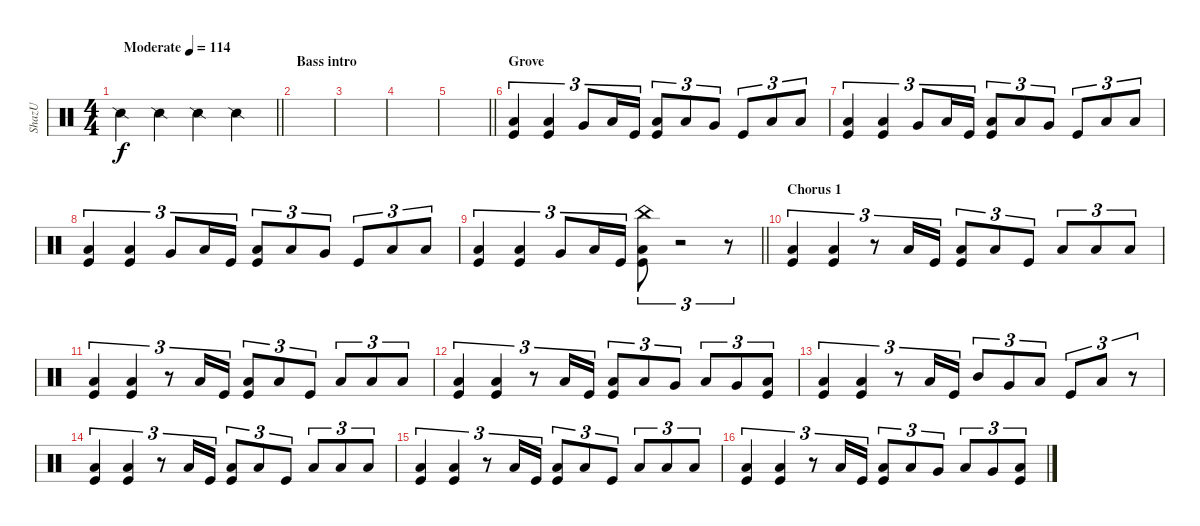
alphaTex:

\track ("ShazU" "ShazU") {instrument percussion}
\staff {score}
\articulation defaults
\ts (4 4)
\tempo (114 "Moderate")
\clef neutral
\barLineRight lightlight
\ks c "Snare (side stick) 2".4{dy f} "Snare (side stick) 2".4 "Snare (side stick) 2".4 "Snare (side stick) 2".4
|
\section ("" "Bass intro")
|
|
|
\barLineRight lightlight
|
\section ("" "Grove")
("Kick (hit)" "Low Floor Tom (hit)").4{tu (3 2)} ("Kick (hit)" "Low Floor Tom (hit)").4{tu (3 2)} "Very Low Tom (hit)".8{tu (3 2)} "Low Floor Tom (hit)".16{tu (3 2)} "Kick (hit)".16{tu (3 2)} ("Kick (hit)" "Low Tom (hit)").8{tu (3 2)} "Low Tom (hit)".8{tu (3 2)} "Very Low Tom (hit)".8{tu (3 2)} "Kick (hit)".8{tu (3 2)} "Low Floor Tom (hit)".8{tu (3 2)} "Low Floor Tom (hit)".8{tu (3 2)} |
("Kick (hit)" "Low Floor Tom (hit)").4{tu (3 2)} ("Kick (hit)" "Low Floor Tom (hit)").4{tu (3 2)} "Very Low Tom (hit)".8{tu (3 2)} "Low Floor Tom (hit)".16{tu (3 2)} "Kick (hit)".16{tu (3 2)} ("Kick (hit)" "Low Tom (hit)").8{tu (3 2)} "Low Tom (hit)".8{tu (3 2)} "Very Low Tom (hit)".8{tu (3 2)} "Kick (hit)".8{tu (3 2)} "Low Floor Tom (hit)".8{tu (3 2)} "Low Floor Tom (hit)".8{tu (3 2)} |
("Kick (hit)" "Low Floor Tom (hit)").4{tu (3 2)} ("Kick (hit)" "Low Floor Tom (hit)").4{tu (3 2)} "Very Low Tom (hit)".8{tu (3 2)} "Low Floor Tom (hit)".16{tu (3 2)} "Kick (hit)".16{tu (3 2)} ("Kick (hit)" "Low Tom (hit)").8{tu (3 2)} "Low Tom (hit)".8{tu (3 2)} "Very Low Tom (hit)".8{tu (3 2)} "Kick (hit)".8{tu (3 2)} "Low Floor Tom (hit)".8{tu (3 2)} "Low Floor Tom (hit)".8{tu (3 2)} |
\barLineRight lightlight
("Kick (hit)" "Low Floor Tom (hit)").4{tu (3 2)} ("Kick (hit)" "Low Floor Tom (hit)").4{tu (3 2)} "Very Low Tom (hit)".8{tu (3 2)} "Low Floor Tom (hit)".16{tu (3 2)} "Kick (hit)".16{tu (3 2)} ("Kick (hit)" "Low Tom (hit)" "China (hit)").8{tu (3 2)} r.2{tu (3 2)} r.8{tu (3 2)} |
\section ("" "Chorus 1")
("Kick (hit)" "Low Floor Tom (hit)").4{tu (3 2)} ("Kick (hit)" "Low Floor Tom (hit)").4{tu (3 2)} r.8{tu (3 2)} "Low Floor Tom (hit)".16{tu (3 2)} "Kick (hit)".16{tu (3 2)} ("Kick (hit)" "Low Tom (hit)").8{tu (3 2)} "Low Tom (hit)".8{tu (3 2)} "Kick (hit)".8{tu (3 2)} "Low Floor Tom (hit)".8{tu (3 2)} "Low Tom (hit)".8{tu (3 2)} "Low Tom (hit)".8{tu (3 2)} |
("Kick (hit)" "Low Floor Tom (hit)").4{tu (3 2)} ("Kick (hit)" "Low Floor Tom (hit)").4{tu (3 2)} r.8{tu (3 2)} "Low Floor Tom (hit)".16{tu (3 2)} "Kick (hit)".16{tu (3 2)} ("Kick (hit)" "Low Tom (hit)").8{tu (3 2)} "Low Tom (hit)".8{tu (3 2)} "Kick (hit)".8{tu (3 2)} "Low Floor Tom (hit)".8{tu (3 2)} "Low Tom (hit)".8{tu (3 2)} "Low Tom (hit)".8{tu (3 2)} |
("Kick (hit)" "Low Floor Tom (hit)").4{tu (3 2)} ("Kick (hit)" "Low Floor Tom (hit)").4{tu (3 2)} r.8{tu (3 2)} "Low Floor Tom (hit)".16{tu (3 2)} "Kick (hit)".16{tu (3 2)} ("Kick (hit)" "Low Tom (hit)").8{tu (3 2)} "Low Tom (hit)".8{tu (3 2)} "Very Low Tom (hit)".8{tu (3 2)} "Low Floor Tom (hit)".8{tu (3 2)} "Very Low Tom (hit)".8{tu (3 2)} ("Kick (hit)" "Low Floor Tom (hit)").8{tu (3 2)} |
("Kick (hit)" "Low Floor Tom (hit)").4{tu (3 2)} ("Kick (hit)" "Low Floor Tom (hit)").4{tu (3 2)} r.8{tu (3 2)} "Low Floor Tom (hit)".16{tu (3 2)} "Kick (hit)".16{tu (3 2)} "Mid Tom (hit)".8{tu (3 2)} "Very Low Tom (hit)".8{tu (3 2)} "Low Tom (hit)".8{tu (3 2)} "Kick (hit)".8{tu (3 2)} "Low Tom (hit)".8{tu (3 2)} r.8{tu (3 2)} |
("Kick (hit)" "Low Floor Tom (hit)").4{tu (3 2)} ("Kick (hit)" "Low Floor Tom (hit)").4{tu (3 2)} r.8{tu (3 2)} "Low Floor Tom (hit)".16{tu (3 2)} "Kick (hit)".16{tu (3 2)} ("Kick (hit)" "Low Tom (hit)").8{tu (3 2)} "Low Tom (hit)".8{tu (3 2)} "Kick (hit)".8{tu (3 2)} "Low Floor Tom (hit)".8{tu (3 2)} "Low Tom (hit)".8{tu (3 2)} "Low Tom (hit)".8{tu (3 2)} |
("Kick (hit)" "Low Floor Tom (hit)").4{tu (3 2)} ("Kick (hit)" "Low Floor Tom (hit)").4{tu (3 2)} r.8{tu (3 2)} "Low Floor Tom (hit)".16{tu (3 2)} "Kick (hit)".16{tu (3 2)} ("Kick (hit)" "Low Tom (hit)").8{tu (3 2)} "Low Tom (hit)".8{tu (3 2)} "Kick (hit)".8{tu (3 2)} "Low Floor Tom (hit)".8{tu (3 2)} "Low Tom (hit)".8{tu (3 2)} "Low Tom (hit)".8{tu (3 2)} |
("Kick (hit)" "Low Floor Tom (hit)").4{tu (3 2)} ("Kick (hit)" "Low Floor Tom (hit)").4{tu (3 2)} r.8{tu (3 2)} "Low Floor Tom (hit)".16{tu (3 2)} "Kick (hit)".16{tu (3 2)} ("Kick (hit)" "Low Tom (hit)").8{tu (3 2)} "Low Tom (hit)".8{tu (3 2)} "Very Low Tom (hit)".8{tu (3 2)} "Low Floor Tom (hit)".8{tu (3 2)} "Very Low Tom (hit)".8{tu (3 2)} ("Kick (hit)" "Low Floor Tom (hit)").8{tu (3 2)}
